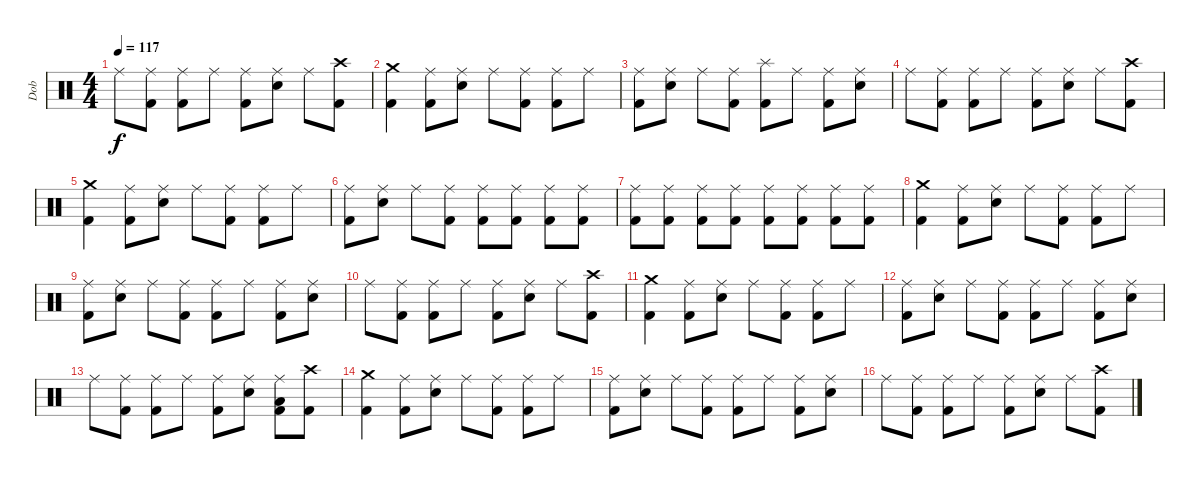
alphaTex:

\track ("Dob" "Dob") {instrument percussion}
\staff
\articulation defaults
\ts (4 4)
\tempo 117
\clef neutral
\ks c "Ride (middle)".8{dy f}
("Ride (middle)" "Kick (hit) 2").8 ("Ride (middle)" "Kick (hit) 2").8 "Ride (middle)".8 ("Ride (middle)" "Kick (hit) 2").8 ("Ride (middle)" "Snare (hit) 2").8 "Ride (middle)".8 ("Crash high (hit)" "Kick (hit) 2").8 |
("Crash medium (hit)" "Kick (hit) 2").4 ("Ride (middle)" "Kick (hit) 2").8 ("Ride (middle)" "Snare (hit) 2").8 "Ride (middle)".8 ("Ride (middle)" "Kick (hit) 2").8 ("Ride (middle)" "Kick (hit) 2").8 "Ride (middle)".8 |
("Ride (middle)" "Kick (hit) 2").8 ("Ride (middle)" "Snare (hit) 2").8 "Ride (middle)".8 ("Ride (middle)" "Kick (hit) 2").8 ("Splash (hit)" "Kick (hit) 2").8 "Ride (middle)".8 ("Ride (middle)" "Kick (hit) 2").8 ("Ride (middle)" "Snare (hit) 2").8 |
"Ride (middle)".8 ("Ride (middle)" "Kick (hit) 2").8 ("Ride (middle)" "Kick (hit) 2").8 "Ride (middle)".8 ("Ride (middle)" "Kick (hit) 2").8 ("Ride (middle)" "Snare (hit) 2").8 "Ride (middle)".8 ("Crash high (hit)" "Kick (hit) 2").8 |
("Crash medium (hit)" "Kick (hit) 2").4 ("Ride (middle)" "Kick (hit) 2").8 ("Ride (middle)" "Snare (hit) 2").8 "Ride (middle)".8 ("Ride (middle)" "Kick (hit) 2").8 ("Ride (middle)" "Kick (hit) 2").8 "Ride (middle)".8 |
("Ride (middle)" "Kick (hit) 2").8 ("Ride (middle)" "Snare (hit) 2").8 "Ride (middle)".8 ("Ride (middle)" "Kick (hit) 2").8 ("Ride (middle)" "Kick (hit) 2").8 ("Ride (middle)" "Kick (hit) 2").8 ("Ride (middle)" "Kick (hit) 2").8 ("Ride (middle)" "Kick (hit) 2").8 |
("Ride (middle)" "Kick (hit) 2").8 ("Ride (middle)" "Kick (hit) 2").8 ("Ride (middle)" "Kick (hit) 2").8 ("Ride (middle)" "Kick (hit) 2").8 ("Ride (middle)" "Kick (hit) 2").8 ("Ride (middle)" "Kick (hit) 2").8 ("Ride (middle)" "Kick (hit) 2").8 ("Ride (middle)" "Kick (hit) 2").8 |
("Crash medium (hit)" "Kick (hit) 2").4 ("Ride (middle)" "Kick (hit) 2").8 ("Ride (middle)" "Snare (hit) 2").8 "Ride (middle)".8 ("Ride (middle)" "Kick (hit) 2").8 ("Ride (middle)" "Kick (hit) 2").8 "Ride (middle)".8 |
("Ride (middle)" "Kick (hit) 2").8 ("Ride (middle)" "Snare (hit) 2").8 "Ride (middle)".8 ("Ride (middle)" "Kick (hit) 2").8 ("Ride (middle)" "Kick (hit) 2").8 "Ride (middle)".8 ("Ride (middle)" "Kick (hit) 2").8 ("Ride (middle)" "Snare (hit) 2").8 |
"Ride (middle)".8 ("Ride (middle)" "Kick (hit) 2").8 ("Ride (middle)" "Kick (hit) 2").8 "Ride (middle)".8 ("Ride (middle)" "Kick (hit) 2").8 ("Ride (middle)" "Snare (hit) 2").8 "Ride (middle)".8 ("Crash high (hit)" "Kick (hit) 2").8 |
("Crash medium (hit)" "Kick (hit) 2").4 ("Ride (middle)" "Kick (hit) 2").8 ("Ride (middle)" "Snare (hit) 2").8 "Ride (middle)".8 ("Ride (middle)" "Kick (hit) 2").8 ("Ride (middle)" "Kick (hit) 2").8 "Ride (middle)".8 |
("Ride (middle)" "Kick (hit) 2").8 ("Ride (middle)" "Snare (hit) 2").8 "Ride (middle)".8 ("Ride (middle)" "Kick (hit) 2").8 ("Ride (middle)" "Kick (hit) 2").8 "Ride (middle)".8 ("Ride (middle)" "Kick (hit) 2").8 ("Ride (middle)" "Snare (hit) 2").8 |
"Ride (middle)".8 ("Ride (middle)" "Kick (hit) 2").8 ("Ride (middle)" "Kick (hit) 2").8 "Ride (middle)".8 ("Ride (middle)" "Kick (hit) 2").8 ("Ride (middle)" "Snare (hit) 2").8 ("Ride (middle)" "Low Tom (hit)" "Kick (hit) 2").8 ("Crash high (hit)" "Kick (hit) 2").8 |
("Crash medium (hit)" "Kick (hit) 2").4 ("Ride (middle)" "Kick (hit) 2").8 ("Ride (middle)" "Snare (hit) 2").8 "Ride (middle)".8 ("Ride (middle)" "Kick (hit) 2").8 ("Ride (middle)" "Kick (hit) 2").8 "Ride (middle)".8 |
("Ride (middle)" "Kick (hit) 2").8 ("Ride (middle)" "Snare (hit) 2").8 "Ride (middle)".8 ("Ride (middle)" "Kick (hit) 2").8 ("Ride (middle)" "Kick (hit) 2").8 "Ride (middle)".8 ("Ride (middle)" "Kick (hit) 2").8 ("Ride (middle)" "Snare (hit) 2").8 |
"Ride (middle)".8 ("Ride (middle)" "Kick (hit) 2").8 ("Ride (middle)" "Kick (hit) 2").8 "Ride (middle)".8 ("Ride (middle)" "Kick (hit) 2").8 ("Ride (middle)" "Snare (hit) 2").8 "Ride (middle)".8 ("Crash high (hit)" "Kick (hit) 2").8
